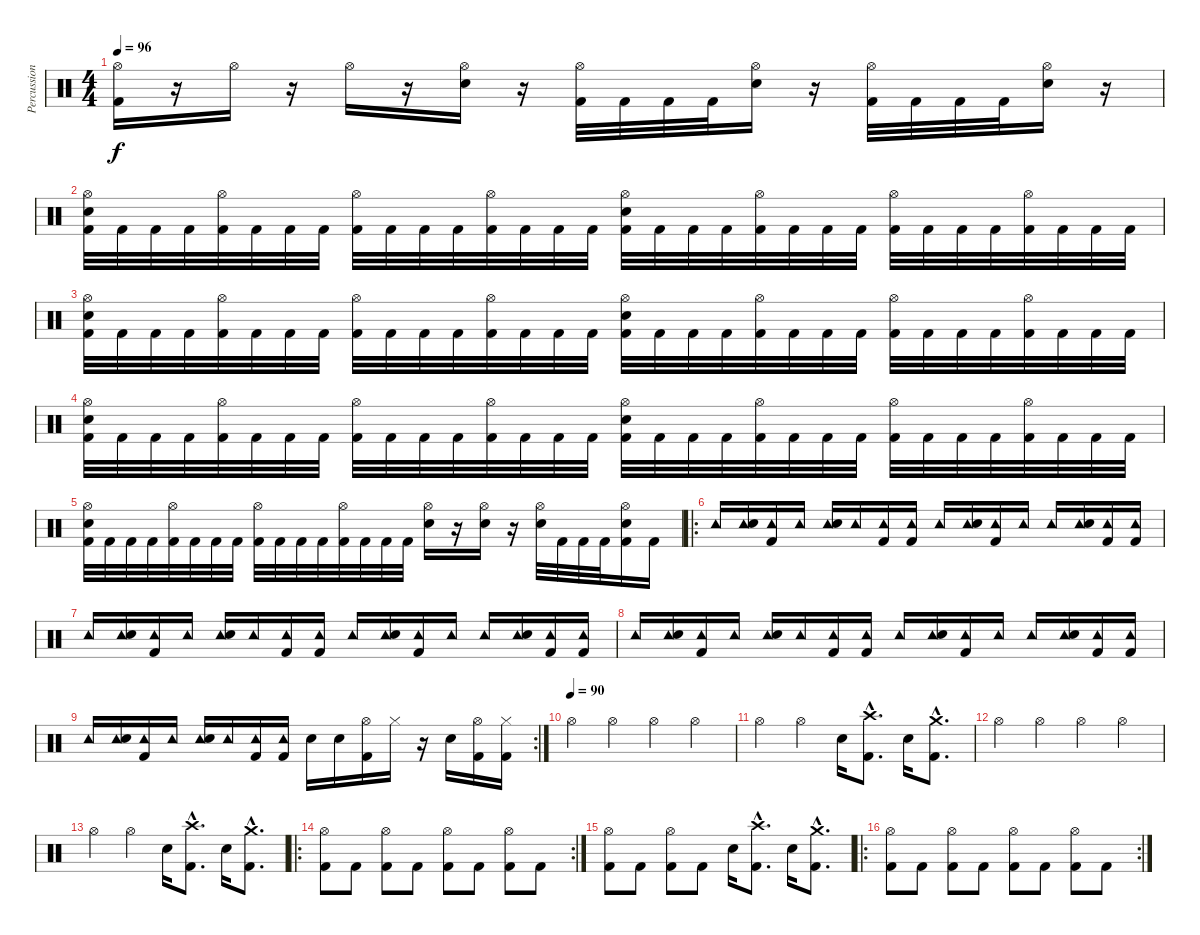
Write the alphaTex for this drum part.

\track ("Percussion" "Percussion") {instrument percussion}
\staff {score}
\articulation defaults
\ts (4 4)
\tempo 96
\clef neutral
\ks c
("Hi-Hat (open)" "Kick (hit) 2").16{dy f} r.16 "Hi-Hat (open)".16 r.16 "Hi-Hat (open)".16 r.16 ("Hi-Hat (open)" "Electric Snare (hit)").16 r.16 ("Hi-Hat (open)" "Kick (hit) 2").32 "Kick (hit) 2".32 "Kick (hit) 2".32 "Kick (hit) 2".32 ("Hi-Hat (open)" "Electric Snare (hit)").16 r.16 ("Hi-Hat (open)" "Kick (hit) 2").32 "Kick (hit) 2".32 "Kick (hit) 2".32 "Kick (hit) 2".32 ("Hi-Hat (open)" "Electric Snare (hit)").16 r.16 |
("Hi-Hat (open)" "Electric Snare (hit)" "Kick (hit) 2").32 "Kick (hit) 2".32 "Kick (hit) 2".32 "Kick (hit) 2".32 ("Hi-Hat (open)" "Kick (hit) 2").32 "Kick (hit) 2".32 "Kick (hit) 2".32 "Kick (hit) 2".32 ("Hi-Hat (open)" "Kick (hit) 2").32 "Kick (hit) 2".32 "Kick (hit) 2".32 "Kick (hit) 2".32 ("Hi-Hat (open)" "Kick (hit) 2").32 "Kick (hit) 2".32 "Kick (hit) 2".32 "Kick (hit) 2".32 ("Hi-Hat (open)" "Electric Snare (hit)" "Kick (hit) 2").32 "Kick (hit) 2".32 "Kick (hit) 2".32 "Kick (hit) 2".32 ("Hi-Hat (open)" "Kick (hit) 2").32 "Kick (hit) 2".32 "Kick (hit) 2".32 "Kick (hit) 2".32 ("Hi-Hat (open)" "Kick (hit) 2").32 "Kick (hit) 2".32 "Kick (hit) 2".32 "Kick (hit) 2".32 ("Hi-Hat (open)" "Kick (hit) 2").32 "Kick (hit) 2".32 "Kick (hit) 2".32 "Kick (hit) 2".32 |
("Hi-Hat (open)" "Electric Snare (hit)" "Kick (hit) 2").32 "Kick (hit) 2".32 "Kick (hit) 2".32 "Kick (hit) 2".32 ("Hi-Hat (open)" "Kick (hit) 2").32 "Kick (hit) 2".32 "Kick (hit) 2".32 "Kick (hit) 2".32 ("Hi-Hat (open)" "Kick (hit) 2").32 "Kick (hit) 2".32 "Kick (hit) 2".32 "Kick (hit) 2".32 ("Hi-Hat (open)" "Kick (hit) 2").32 "Kick (hit) 2".32 "Kick (hit) 2".32 "Kick (hit) 2".32 ("Hi-Hat (open)" "Electric Snare (hit)" "Kick (hit) 2").32 "Kick (hit) 2".32 "Kick (hit) 2".32 "Kick (hit) 2".32 ("Hi-Hat (open)" "Kick (hit) 2").32 "Kick (hit) 2".32 "Kick (hit) 2".32 "Kick (hit) 2".32 ("Hi-Hat (open)" "Kick (hit) 2").32 "Kick (hit) 2".32 "Kick (hit) 2".32 "Kick (hit) 2".32 ("Hi-Hat (open)" "Kick (hit) 2").32 "Kick (hit) 2".32 "Kick (hit) 2".32 "Kick (hit) 2".32 |
("Hi-Hat (open)" "Electric Snare (hit)" "Kick (hit) 2").32 "Kick (hit) 2".32 "Kick (hit) 2".32 "Kick (hit) 2".32 ("Hi-Hat (open)" "Kick (hit) 2").32 "Kick (hit) 2".32 "Kick (hit) 2".32 "Kick (hit) 2".32 ("Hi-Hat (open)" "Kick (hit) 2").32 "Kick (hit) 2".32 "Kick (hit) 2".32 "Kick (hit) 2".32 ("Hi-Hat (open)" "Kick (hit) 2").32 "Kick (hit) 2".32 "Kick (hit) 2".32 "Kick (hit) 2".32 ("Hi-Hat (open)" "Electric Snare (hit)" "Kick (hit) 2").32 "Kick (hit) 2".32 "Kick (hit) 2".32 "Kick (hit) 2".32 ("Hi-Hat (open)" "Kick (hit) 2").32 "Kick (hit) 2".32 "Kick (hit) 2".32 "Kick (hit) 2".32 ("Hi-Hat (open)" "Kick (hit) 2").32 "Kick (hit) 2".32 "Kick (hit) 2".32 "Kick (hit) 2".32 ("Hi-Hat (open)" "Kick (hit) 2").32 "Kick (hit) 2".32 "Kick (hit) 2".32 "Kick (hit) 2".32 |
("Hi-Hat (open)" "Electric Snare (hit)" "Kick (hit) 2").32 "Kick (hit) 2".32 "Kick (hit) 2".32 "Kick (hit) 2".32 ("Hi-Hat (open)" "Kick (hit) 2").32 "Kick (hit) 2".32 "Kick (hit) 2".32 "Kick (hit) 2".32 ("Hi-Hat (open)" "Kick (hit) 2").32 "Kick (hit) 2".32 "Kick (hit) 2".32 "Kick (hit) 2".32 ("Hi-Hat (open)" "Kick (hit) 2").32 "Kick (hit) 2".32 "Kick (hit) 2".32 "Kick (hit) 2".32 ("Hi-Hat (open)" "Electric Snare (hit)").16 r.16 ("Hi-Hat (open)" "Electric Snare (hit)").16 r.16 ("Hi-Hat (open)" "Electric Snare (hit)").32 "Kick (hit) 2".32 "Kick (hit) 2".32 "Kick (hit) 2".32 ("Hi-Hat (open)" "Electric Snare (hit)" "Kick (hit) 2").16 "Kick (hit) 2".16 |
\ro "Tambourine (hit)".16
("Tambourine (hit)" "Electric Snare (hit)").16 ("Tambourine (hit)" "Kick (hit) 2").16 "Tambourine (hit)".16 ("Tambourine (hit)" "Electric Snare (hit)").16 "Tambourine (hit)".16 ("Tambourine (hit)" "Kick (hit) 2").16 ("Tambourine (hit)" "Kick (hit) 2").16 "Tambourine (hit)".16 ("Tambourine (hit)" "Electric Snare (hit)").16 ("Tambourine (hit)" "Kick (hit) 2").16 "Tambourine (hit)".16 "Tambourine (hit)".16 ("Tambourine (hit)" "Electric Snare (hit)").16 ("Tambourine (hit)" "Kick (hit) 2").16 ("Tambourine (hit)" "Kick (hit) 2").16 |
"Tambourine (hit)".16 ("Tambourine (hit)" "Electric Snare (hit)").16 ("Tambourine (hit)" "Kick (hit) 2").16 "Tambourine (hit)".16 ("Tambourine (hit)" "Electric Snare (hit)").16 "Tambourine (hit)".16 ("Tambourine (hit)" "Kick (hit) 2").16 ("Tambourine (hit)" "Kick (hit) 2").16 "Tambourine (hit)".16 ("Tambourine (hit)" "Electric Snare (hit)").16 ("Tambourine (hit)" "Kick (hit) 2").16 "Tambourine (hit)".16 "Tambourine (hit)".16 ("Tambourine (hit)" "Electric Snare (hit)").16 ("Tambourine (hit)" "Kick (hit) 2").16 ("Tambourine (hit)" "Kick (hit) 2").16 |
"Tambourine (hit)".16 ("Tambourine (hit)" "Electric Snare (hit)").16 ("Tambourine (hit)" "Kick (hit) 2").16 "Tambourine (hit)".16 ("Tambourine (hit)" "Electric Snare (hit)").16 "Tambourine (hit)".16 ("Tambourine (hit)" "Kick (hit) 2").16 ("Tambourine (hit)" "Kick (hit) 2").16 "Tambourine (hit)".16 ("Tambourine (hit)" "Electric Snare (hit)").16 ("Tambourine (hit)" "Kick (hit) 2").16 "Tambourine (hit)".16 "Tambourine (hit)".16 ("Tambourine (hit)" "Electric Snare (hit)").16 ("Tambourine (hit)" "Kick (hit) 2").16 ("Tambourine (hit)" "Kick (hit) 2").16 |
\rc 2 "Tambourine (hit)".16
("Tambourine (hit)" "Electric Snare (hit)").16 ("Tambourine (hit)" "Kick (hit) 2").16 "Tambourine (hit)".16 ("Tambourine (hit)" "Electric Snare (hit)").16 "Tambourine (hit)".16 ("Tambourine (hit)" "Kick (hit) 2").16 ("Tambourine (hit)" "Kick (hit) 2").16 "Electric Snare (hit)".16 "Electric Snare (hit)".16 ("Hi-Hat (open)" "Kick (hit) 2").16 "Hi-Hat (closed)".16 r.16 "Electric Snare (hit)".16 ("Hi-Hat (open)" "Kick (hit) 2").16 ("Hi-Hat (closed)" "Kick (hit) 2").16 |
\tempo (90)
"Hi-Hat (open)".4 "Hi-Hat (open)".4 "Hi-Hat (open)".4 "Hi-Hat (open)".4 |
"Hi-Hat (open)".4 "Hi-Hat (open)".4 "Electric Snare (hit)".16 ("Crash high (hit)"{hac} "Kick (hit) 2"{hac}).8{d} "Electric Snare (hit)".16 ("Crash medium (hit)"{hac} "Kick (hit) 2"{hac}).8{d} |
"Hi-Hat (open)".4 "Hi-Hat (open)".4 "Hi-Hat (open)".4 "Hi-Hat (open)".4 |
"Hi-Hat (open)".4 "Hi-Hat (open)".4 "Electric Snare (hit)".16 ("Crash high (hit)"{hac} "Kick (hit) 2"{hac}).8{d} "Electric Snare (hit)".16 ("Crash medium (hit)"{hac} "Kick (hit) 2"{hac}).8{d} |
\ro
\rc 2
("Hi-Hat (open)" "Kick (hit) 2").8 "Kick (hit) 2".8 ("Hi-Hat (open)" "Kick (hit) 2").8 "Kick (hit) 2".8 ("Hi-Hat (open)" "Kick (hit) 2").8 "Kick (hit) 2".8 ("Hi-Hat (open)" "Kick (hit) 2").8 "Kick (hit) 2".8 |
("Hi-Hat (open)" "Kick (hit) 2").8 "Kick (hit) 2".8 ("Hi-Hat (open)" "Kick (hit) 2").8 "Kick (hit) 2".8 "Electric Snare (hit)".16 ("Crash high (hit)"{hac} "Kick (hit) 2"{hac}).8{d} "Electric Snare (hit)".16 ("Crash medium (hit)"{hac} "Kick (hit) 2"{hac}).8{d} |
\ro
\rc 2
("Hi-Hat (open)" "Kick (hit) 2").8 "Kick (hit) 2".8 ("Hi-Hat (open)" "Kick (hit) 2").8 "Kick (hit) 2".8 ("Hi-Hat (open)" "Kick (hit) 2").8 "Kick (hit) 2".8 ("Hi-Hat (open)" "Kick (hit) 2").8 "Kick (hit) 2".8
